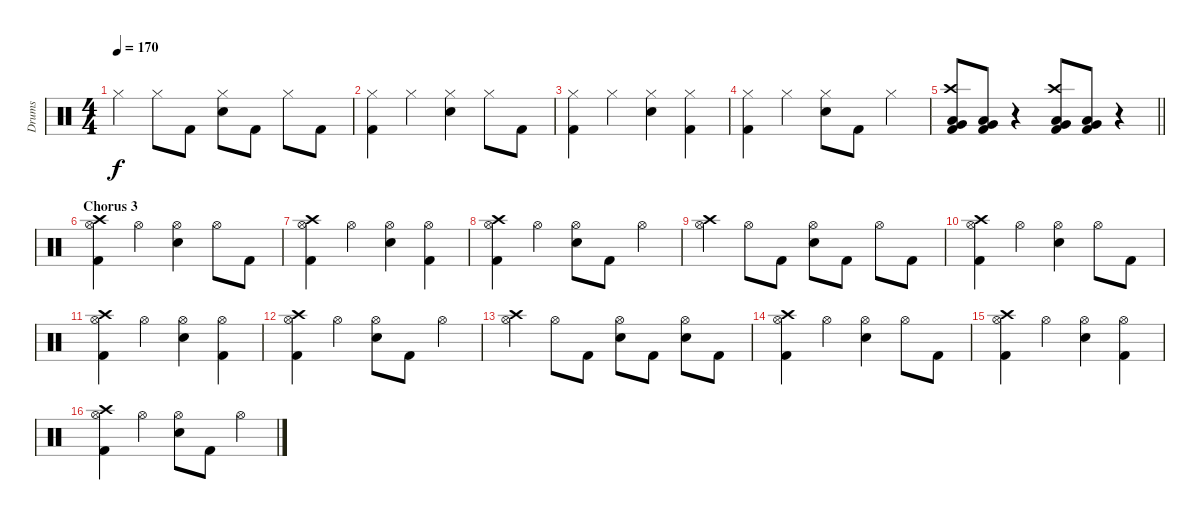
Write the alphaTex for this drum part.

\track ("Drums" "Drums") {instrument percussion}
\staff {score}
\articulation defaults
\ts (4 4)
\tempo 170
\clef neutral
\ks c "Hi-Hat (closed)".4{dy f} "Hi-Hat (closed)".8 "Kick (hit) 2".8
("Hi-Hat (closed)" "Electric Snare (hit)").8 "Kick (hit) 2".8 "Hi-Hat (closed)".8 "Kick (hit) 2".8 |
("Hi-Hat (closed)" "Kick (hit) 2").4 "Hi-Hat (closed)".4 ("Hi-Hat (closed)" "Electric Snare (hit)").4 "Hi-Hat (closed)".8 "Kick (hit) 2".8 |
("Hi-Hat (closed)" "Kick (hit) 2").4 "Hi-Hat (closed)".4 ("Hi-Hat (closed)" "Electric Snare (hit)").4 ("Hi-Hat (closed)" "Kick (hit) 2").4 |
("Hi-Hat (closed)" "Kick (hit) 2").4 "Hi-Hat (closed)".4 ("Hi-Hat (closed)" "Electric Snare (hit)").8 "Kick (hit) 2".8 "Hi-Hat (closed)".4 |
\barLineRight lightlight
("Crash high (hit)" "Very Low Tom (hit)" "Low Floor Tom (hit)" "Kick (hit) 2").8 ("Very Low Tom (hit)" "Low Floor Tom (hit)" "Kick (hit) 2").8 r.4 ("Crash high (hit)" "Very Low Tom (hit)" "Low Floor Tom (hit)" "Kick (hit) 2").8 ("Very Low Tom (hit)" "Low Floor Tom (hit)" "Kick (hit) 2").8 r.4 |
\section ("" "Chorus 3")
("Crash high (hit)" "Hi-Hat (open)" "Kick (hit) 2").4 "Hi-Hat (open)".4 ("Hi-Hat (open)" "Electric Snare (hit)").4 "Hi-Hat (open)".8 "Kick (hit) 2".8 |
("Crash high (hit)" "Hi-Hat (open)" "Kick (hit) 2").4 "Hi-Hat (open)".4 ("Hi-Hat (open)" "Electric Snare (hit)").4 ("Hi-Hat (open)" "Kick (hit) 2").4 |
("Crash high (hit)" "Hi-Hat (open)" "Kick (hit) 2").4 "Hi-Hat (open)".4 ("Hi-Hat (open)" "Electric Snare (hit)").8 "Kick (hit) 2".8 "Hi-Hat (open)".4 |
("Crash high (hit)" "Hi-Hat (open)").4 "Hi-Hat (open)".8 "Kick (hit) 2".8 ("Hi-Hat (open)" "Electric Snare (hit)").8 "Kick (hit) 2".8 "Hi-Hat (open)".8 "Kick (hit) 2".8 |
("Crash high (hit)" "Hi-Hat (open)" "Kick (hit) 2").4 "Hi-Hat (open)".4 ("Hi-Hat (open)" "Electric Snare (hit)").4 "Hi-Hat (open)".8 "Kick (hit) 2".8 |
("Crash high (hit)" "Hi-Hat (open)" "Kick (hit) 2").4 "Hi-Hat (open)".4 ("Hi-Hat (open)" "Electric Snare (hit)").4 ("Hi-Hat (open)" "Kick (hit) 2").4 |
("Crash high (hit)" "Hi-Hat (open)" "Kick (hit) 2").4 "Hi-Hat (open)".4 ("Hi-Hat (open)" "Electric Snare (hit)").8 "Kick (hit) 2".8 "Hi-Hat (open)".4 |
("Crash high (hit)" "Hi-Hat (open)").4 "Hi-Hat (open)".8 "Kick (hit) 2".8 ("Hi-Hat (open)" "Electric Snare (hit)").8 "Kick (hit) 2".8 ("Hi-Hat (open)" "Electric Snare (hit)").8 "Kick (hit) 2".8 |
("Crash high (hit)" "Hi-Hat (open)" "Kick (hit) 2").4 "Hi-Hat (open)".4 ("Hi-Hat (open)" "Electric Snare (hit)").4 "Hi-Hat (open)".8 "Kick (hit) 2".8 |
("Crash high (hit)" "Hi-Hat (open)" "Kick (hit) 2").4 "Hi-Hat (open)".4 ("Hi-Hat (open)" "Electric Snare (hit)").4 ("Hi-Hat (open)" "Kick (hit) 2").4 |
("Crash high (hit)" "Hi-Hat (open)" "Kick (hit) 2").4 "Hi-Hat (open)".4 ("Hi-Hat (open)" "Electric Snare (hit)").8 "Kick (hit) 2".8 "Hi-Hat (open)".4
